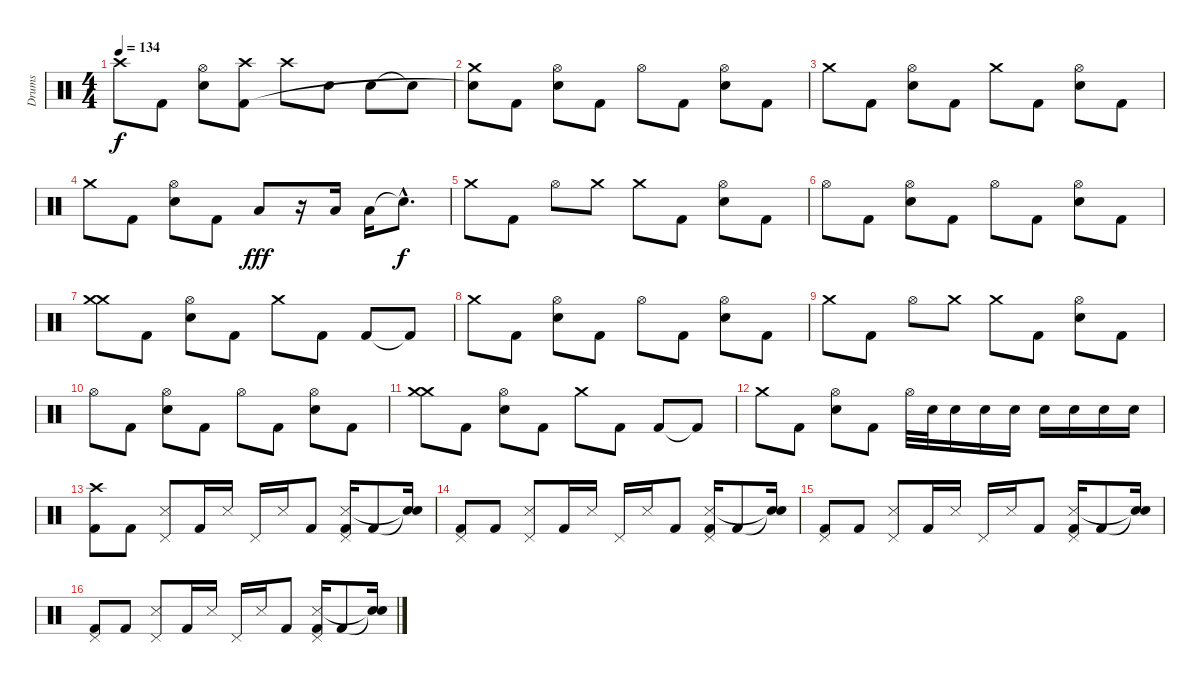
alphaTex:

\track ("Drums" "Drums") {instrument percussion}
\staff {score}
\articulation defaults
\ts (4 4)
\tempo 134
\clef neutral
\ks c "Crash high (hit)".8{dy f} "Kick (hit) 2".8
("Hi-Hat (open)" "Electric Snare (hit)").8 ("Crash high (hit)" "Kick (hit) 2").8 "Crash high (hit)".8 "Electric Snare (hit)".8 "Electric Snare (hit)".8 "Snare (hit)"{t}.8 |
("Crash medium (hit)" "Snare (hit)"{t}).8 "Kick (hit) 2".8 ("Hi-Hat (open)" "Electric Snare (hit)").8 "Kick (hit) 2".8 "Hi-Hat (open)".8 "Kick (hit) 2".8 ("Hi-Hat (open)" "Electric Snare (hit)").8 "Kick (hit) 2".8 |
"Crash medium (hit)".8 "Kick (hit) 2".8 ("Hi-Hat (open)" "Electric Snare (hit)").8 "Kick (hit) 2".8 "Crash medium (hit)".8 "Kick (hit) 2".8 ("Hi-Hat (open)" "Electric Snare (hit)").8 "Kick (hit) 2".8 |
"Crash medium (hit)".8 "Kick (hit) 2".8 ("Hi-Hat (open)" "Electric Snare (hit)").8 "Kick (hit) 2".8 "Low Floor Tom (hit)".8{dy fff} r.16 "Low Floor Tom (hit)".16 "Low Floor Tom (hit)".16 "Snare (hit)"{hac t}.8{d dy f} |
"Crash medium (hit)".8 "Kick (hit) 2".8 "Hi-Hat (open)".8 "Crash medium (hit)".8 "Crash medium (hit)".8 "Kick (hit) 2".8 ("Hi-Hat (open)" "Electric Snare (hit)").8 "Kick (hit) 2".8 |
"Hi-Hat (open)".8 "Kick (hit) 2".8 ("Hi-Hat (open)" "Electric Snare (hit)").8 "Kick (hit) 2".8 "Hi-Hat (open)".8 "Kick (hit) 2".8 ("Hi-Hat (open)" "Electric Snare (hit)").8 "Kick (hit) 2".8 |
("Crash medium (hit)" "Crash medium (hit)").8 "Kick (hit) 2".8 ("Hi-Hat (open)" "Electric Snare (hit)").8 "Kick (hit) 2".8 "Crash medium (hit)".8 "Kick (hit) 2".8 "Kick (hit) 2".8 "Kick (hit) 2"{t}.8 |
"Crash medium (hit)".8 "Kick (hit) 2".8 ("Hi-Hat (open)" "Electric Snare (hit)").8 "Kick (hit) 2".8 "Hi-Hat (open)".8 "Kick (hit) 2".8 ("Hi-Hat (open)" "Electric Snare (hit)").8 "Kick (hit) 2".8 |
"Crash medium (hit)".8 "Kick (hit) 2".8 "Hi-Hat (open)".8 "Crash medium (hit)".8 "Crash medium (hit)".8 "Kick (hit) 2".8 ("Hi-Hat (open)" "Electric Snare (hit)").8 "Kick (hit) 2".8 |
"Hi-Hat (open)".8 "Kick (hit) 2".8 ("Hi-Hat (open)" "Electric Snare (hit)").8 "Kick (hit) 2".8 "Hi-Hat (open)".8 "Kick (hit) 2".8 ("Hi-Hat (open)" "Electric Snare (hit)").8 "Kick (hit) 2".8 |
("Crash medium (hit)" "Crash medium (hit)").8 "Kick (hit) 2".8 ("Hi-Hat (open)" "Electric Snare (hit)").8 "Kick (hit) 2".8 "Crash medium (hit)".8 "Kick (hit) 2".8 "Kick (hit) 2".8 "Kick (hit) 2"{t}.8 |
"Crash medium (hit)".8 "Kick (hit) 2".8 ("Hi-Hat (open)" "Electric Snare (hit)").8 "Kick (hit) 2".8 "Hi-Hat (open)".32 "Electric Snare (hit)".32 "Electric Snare (hit)".16 "Electric Snare (hit)".16 "Electric Snare (hit)".16 "Electric Snare (hit)".16 "Electric Snare (hit)".16 "Electric Snare (hit)".16 "Electric Snare (hit)".16 |
("Crash high (hit)" "Kick (hit) 2").8 "Kick (hit) 2".8 ("Snare (side stick) 3" "Pedal Hi-Hat (hit)").8 "Kick (hit) 2".16 "Snare (side stick) 3".16 "Pedal Hi-Hat (hit)".16 "Snare (side stick) 3".16 "Kick (hit) 2".8 ("Pedal Hi-Hat (hit)" "Snare (side stick) 3" "Kick (hit) 2").16 "Kick (hit) 2".8 ("Snare (hit)"{t} "Snare (hit)"{t}).16 |
("Pedal Hi-Hat (hit)" "Kick (hit) 2").8 "Kick (hit) 2".8 ("Snare (side stick) 3" "Pedal Hi-Hat (hit)").8 "Kick (hit) 2".16 "Snare (side stick) 3".16 "Pedal Hi-Hat (hit)".16 "Snare (side stick) 3".16 "Kick (hit) 2".8 ("Pedal Hi-Hat (hit)" "Snare (side stick) 3" "Kick (hit) 2").16 "Kick (hit) 2".8 ("Snare (hit)"{t} "Snare (hit)"{t}).16 |
("Pedal Hi-Hat (hit)" "Kick (hit) 2").8 "Kick (hit) 2".8 ("Snare (side stick) 3" "Pedal Hi-Hat (hit)").8 "Kick (hit) 2".16 "Snare (side stick) 3".16 "Pedal Hi-Hat (hit)".16 "Snare (side stick) 3".16 "Kick (hit) 2".8 ("Pedal Hi-Hat (hit)" "Snare (side stick) 3" "Kick (hit) 2").16 "Kick (hit) 2".8 ("Snare (hit)"{t} "Snare (hit)"{t}).16 |
("Pedal Hi-Hat (hit)" "Kick (hit) 2").8 "Kick (hit) 2".8 ("Snare (side stick) 3" "Pedal Hi-Hat (hit)").8 "Kick (hit) 2".16 "Snare (side stick) 3".16 "Pedal Hi-Hat (hit)".16 "Snare (side stick) 3".16 "Kick (hit) 2".8 ("Pedal Hi-Hat (hit)" "Snare (side stick) 3" "Kick (hit) 2").16 "Kick (hit) 2".8 ("Snare (hit)"{t} "Snare (hit)"{t}).16
